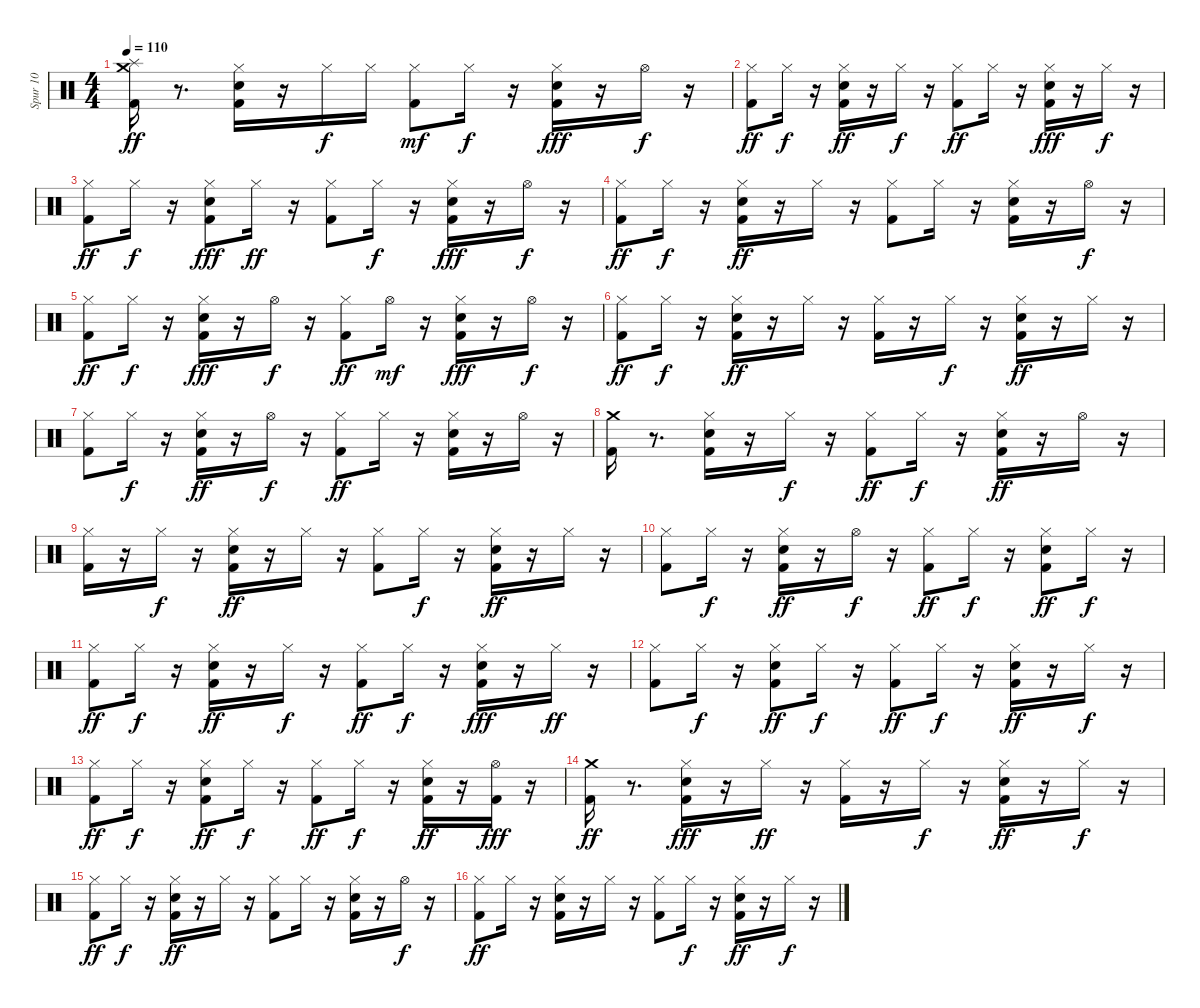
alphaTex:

\track ("Spur 10" "Spur 10") {instrument percussion}
\staff {score}
\articulation defaults
\ts (4 4)
\tempo 110
\clef neutral
\ks c
("Kick (hit) 2" "Crash medium (hit)" "Splash (hit)").16{dy ff} r.8{d} ("Hi-Hat (closed)" "Snare (hit) 2" "Kick (hit) 2").16 r.16 "Hi-Hat (closed)".16{dy f} "Hi-Hat (closed)".16 ("Hi-Hat (closed)" "Kick (hit) 2").8{dy mf} "Hi-Hat (closed)".16{dy f} r.16 ("Kick (hit) 2" "Snare (hit) 2" "Hi-Hat (closed)").16{dy fff} r.16 "Hi-Hat (open)".16{dy f} r.16 |
("Kick (hit) 2" "Hi-Hat (closed)").8{dy ff} "Hi-Hat (closed)".16{dy f} r.16 ("Kick (hit) 2" "Snare (hit) 2" "Hi-Hat (closed)").16{dy ff} r.16 "Hi-Hat (closed)".16{dy f} r.16 ("Hi-Hat (closed)" "Kick (hit) 2").8{dy ff} "Hi-Hat (closed)".16 r.16 ("Kick (hit) 2" "Hi-Hat (closed)" "Snare (hit) 2").16{dy fff} r.16 "Hi-Hat (closed)".16{dy f} r.16 |
("Kick (hit) 2" "Hi-Hat (closed)").8{dy ff} "Hi-Hat (closed)".16{dy f} r.16 ("Kick (hit) 2" "Snare (hit) 2" "Hi-Hat (closed)").8{dy fff} "Hi-Hat (closed)".16{dy ff} r.16 ("Hi-Hat (closed)" "Kick (hit) 2").8 "Hi-Hat (closed)".16{dy f} r.16 ("Kick (hit) 2" "Snare (hit) 2" "Hi-Hat (closed)").16{dy fff} r.16 "Hi-Hat (open)".16{dy f} r.16 |
("Hi-Hat (closed)" "Kick (hit) 2").8{dy ff} "Hi-Hat (closed)".16{dy f} r.16 ("Snare (hit) 2" "Kick (hit) 2" "Hi-Hat (closed)").16{dy ff} r.16 "Hi-Hat (closed)".16 r.16 ("Hi-Hat (closed)" "Kick (hit) 2").8 "Hi-Hat (closed)".16 r.16 ("Kick (hit) 2" "Snare (hit) 2" "Hi-Hat (closed)").16 r.16 "Hi-Hat (open)".16{dy f} r.16 |
("Kick (hit) 2" "Hi-Hat (closed)").8{dy ff} "Hi-Hat (closed)".16{dy f} r.16 ("Kick (hit) 2" "Snare (hit) 2" "Hi-Hat (closed)").16{dy fff} r.16 "Hi-Hat (open)".16{dy f} r.16 ("Kick (hit) 2" "Hi-Hat (closed)").8{dy ff} "Hi-Hat (open)".16{dy mf} r.16 ("Hi-Hat (closed)" "Kick (hit) 2" "Snare (hit) 2").16{dy fff} r.16 "Hi-Hat (open)".16{dy f} r.16 |
("Hi-Hat (closed)" "Kick (hit) 2").8{dy ff} "Hi-Hat (closed)".16{dy f} r.16 ("Snare (hit) 2" "Kick (hit) 2" "Hi-Hat (closed)").16{dy ff} r.16 "Hi-Hat (closed)".16 r.16 ("Hi-Hat (closed)" "Kick (hit) 2").16 r.16 "Hi-Hat (closed)".16{dy f} r.16 ("Snare (hit) 2" "Kick (hit) 2" "Hi-Hat (closed)").16{dy ff} r.16 "Hi-Hat (closed)".16 r.16 |
("Kick (hit) 2" "Hi-Hat (closed)").8 "Hi-Hat (closed)".16{dy f} r.16 ("Kick (hit) 2" "Snare (hit) 2" "Hi-Hat (closed)").16{dy ff} r.16 "Hi-Hat (open)".16{dy f} r.16 ("Kick (hit) 2" "Hi-Hat (closed)").8{dy ff} "Hi-Hat (closed)".16 r.16 ("Snare (hit) 2" "Kick (hit) 2" "Hi-Hat (closed)").16 r.16 "Hi-Hat (open)".16 r.16 |
("Kick (hit) 2" "Crash medium (hit)").16 r.8{d} ("Hi-Hat (closed)" "Kick (hit) 2" "Snare (hit) 2").16 r.16 "Hi-Hat (closed)".16{dy f} r.16 ("Kick (hit) 2" "Hi-Hat (closed)").8{dy ff} "Hi-Hat (closed)".16{dy f} r.16 ("Snare (hit) 2" "Kick (hit) 2" "Hi-Hat (closed)").16{dy ff} r.16 "Hi-Hat (open)".16 r.16 |
("Kick (hit) 2" "Hi-Hat (closed)").16 r.16 "Hi-Hat (closed)".16{dy f} r.16 ("Snare (hit) 2" "Kick (hit) 2" "Hi-Hat (closed)").16{dy ff} r.16 "Hi-Hat (closed)".16 r.16 ("Kick (hit) 2" "Hi-Hat (closed)").8 "Hi-Hat (closed)".16{dy f} r.16 ("Hi-Hat (closed)" "Snare (hit) 2" "Kick (hit) 2").16{dy ff} r.16 "Hi-Hat (closed)".16 r.16 |
("Hi-Hat (closed)" "Kick (hit) 2").8 "Hi-Hat (closed)".16{dy f} r.16 ("Kick (hit) 2" "Snare (hit) 2" "Hi-Hat (closed)").16{dy ff} r.16 "Hi-Hat (open)".16{dy f} r.16 ("Hi-Hat (closed)" "Kick (hit) 2").8{dy ff} "Hi-Hat (closed)".16{dy f} r.16 ("Snare (hit) 2" "Kick (hit) 2" "Hi-Hat (closed)").8{dy ff} "Hi-Hat (closed)".16{dy f} r.16 |
("Kick (hit) 2" "Hi-Hat (closed)").8{dy ff} "Hi-Hat (closed)".16{dy f} r.16 ("Hi-Hat (closed)" "Snare (hit) 2" "Kick (hit) 2").16{dy ff} r.16 "Hi-Hat (closed)".16{dy f} r.16 ("Hi-Hat (closed)" "Kick (hit) 2").8{dy ff} "Hi-Hat (closed)".16{dy f} r.16 ("Hi-Hat (closed)" "Kick (hit) 2" "Snare (hit) 2").16{dy fff} r.16 "Hi-Hat (closed)".16{dy ff} r.16 |
("Hi-Hat (closed)" "Kick (hit) 2").8 "Hi-Hat (closed)".16{dy f} r.16 ("Kick (hit) 2" "Snare (hit) 2" "Hi-Hat (closed)").8{dy ff} "Hi-Hat (closed)".16{dy f} r.16 ("Kick (hit) 2" "Hi-Hat (closed)").8{dy ff} "Hi-Hat (closed)".16{dy f} r.16 ("Snare (hit) 2" "Kick (hit) 2" "Hi-Hat (closed)").16{dy ff} r.16 "Hi-Hat (closed)".16{dy f} r.16 |
("Kick (hit) 2" "Hi-Hat (closed)").8{dy ff} "Hi-Hat (closed)".16{dy f} r.16 ("Snare (hit) 2" "Kick (hit) 2" "Hi-Hat (closed)").8{dy ff} "Hi-Hat (closed)".16{dy f} r.16 ("Hi-Hat (closed)" "Kick (hit) 2").8{dy ff} "Hi-Hat (closed)".16{dy f} r.16 ("Kick (hit) 2" "Snare (hit) 2" "Hi-Hat (closed)").16{dy ff} r.16 ("Hi-Hat (open)" "Kick (hit) 2").16{dy fff} r.16 |
("Kick (hit) 2" "Crash medium (hit)").16{dy ff} r.8{d} ("Kick (hit) 2" "Snare (hit) 2" "Hi-Hat (closed)").16{dy fff} r.16 "Hi-Hat (closed)".16{dy ff} r.16 ("Kick (hit) 2" "Hi-Hat (closed)").16 r.16 "Hi-Hat (closed)".16{dy f} r.16 ("Snare (hit) 2" "Kick (hit) 2" "Hi-Hat (closed)").16{dy ff} r.16 "Hi-Hat (closed)".16{dy f} r.16 |
("Kick (hit) 2" "Hi-Hat (closed)").8{dy ff} "Hi-Hat (closed)".16{dy f} r.16 ("Snare (hit) 2" "Kick (hit) 2" "Hi-Hat (closed)").16{dy ff} r.16 "Hi-Hat (closed)".16 r.16 ("Kick (hit) 2" "Hi-Hat (closed)").8 "Hi-Hat (closed)".16 r.16 ("Snare (hit) 2" "Kick (hit) 2" "Hi-Hat (closed)").16 r.16 "Hi-Hat (open)".16{dy f} r.16 |
("Kick (hit) 2" "Hi-Hat (closed)").8{dy ff} "Hi-Hat (closed)".16 r.16 ("Kick (hit) 2" "Snare (hit) 2" "Hi-Hat (closed)").16 r.16 "Hi-Hat (closed)".16 r.16 ("Hi-Hat (closed)" "Kick (hit) 2").8 "Hi-Hat (closed)".16{dy f} r.16 ("Snare (hit) 2" "Kick (hit) 2" "Hi-Hat (closed)").16{dy ff} r.16 "Hi-Hat (closed)".16{dy f} r.16
